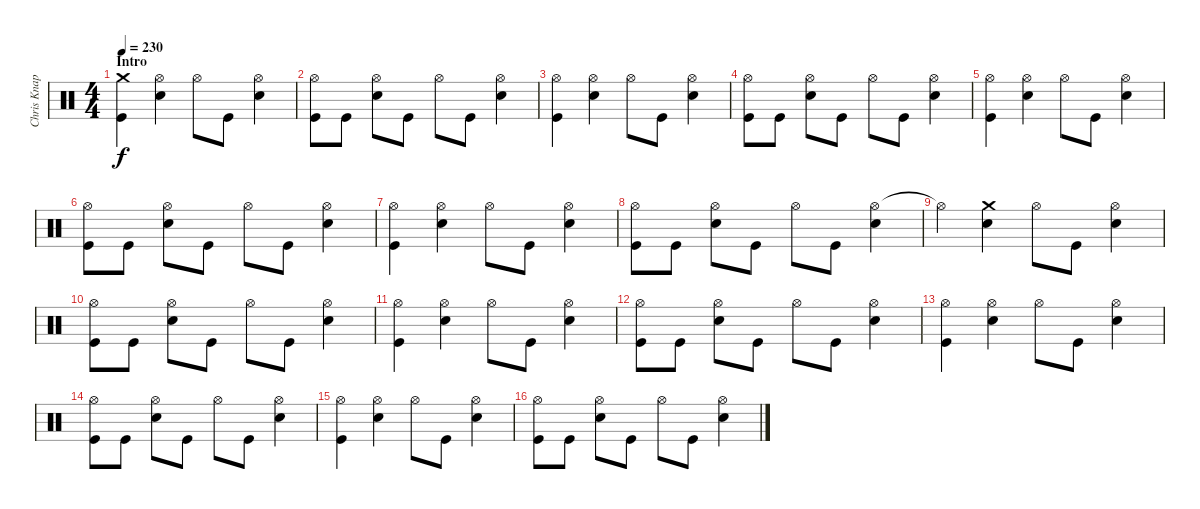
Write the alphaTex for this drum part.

\track ("Chris Knapp" "Chris Knap") {instrument percussion}
\staff {score}
\articulation defaults
\ts (4 4)
\section ("" "Intro")
\tempo 230
\clef neutral
\ks c
("Crash medium (hit)" "Kick (hit)").4{dy f} ("Hi-Hat (open)" "Electric Snare (hit)").4 "Hi-Hat (open)".8 "Kick (hit)".8 ("Hi-Hat (open)" "Electric Snare (hit)").4 |
("Hi-Hat (open)" "Kick (hit)").8 "Kick (hit)".8 ("Hi-Hat (open)" "Electric Snare (hit)").8 "Kick (hit)".8 "Hi-Hat (open)".8 "Kick (hit)".8 ("Hi-Hat (open)" "Electric Snare (hit)").4 |
("Hi-Hat (open)" "Kick (hit)").4 ("Hi-Hat (open)" "Electric Snare (hit)").4 "Hi-Hat (open)".8 "Kick (hit)".8 ("Hi-Hat (open)" "Electric Snare (hit)").4 |
("Hi-Hat (open)" "Kick (hit)").8 "Kick (hit)".8 ("Hi-Hat (open)" "Electric Snare (hit)").8 "Kick (hit)".8 "Hi-Hat (open)".8 "Kick (hit)".8 ("Hi-Hat (open)" "Electric Snare (hit)").4 |
("Hi-Hat (open)" "Kick (hit)").4 ("Hi-Hat (open)" "Electric Snare (hit)").4 "Hi-Hat (open)".8 "Kick (hit)".8 ("Hi-Hat (open)" "Electric Snare (hit)").4 |
("Hi-Hat (open)" "Kick (hit)").8 "Kick (hit)".8 ("Hi-Hat (open)" "Electric Snare (hit)").8 "Kick (hit)".8 "Hi-Hat (open)".8 "Kick (hit)".8 ("Hi-Hat (open)" "Electric Snare (hit)").4 |
("Hi-Hat (open)" "Kick (hit)").4 ("Hi-Hat (open)" "Electric Snare (hit)").4 "Hi-Hat (open)".8 "Kick (hit)".8 ("Hi-Hat (open)" "Electric Snare (hit)").4 |
("Hi-Hat (open)" "Kick (hit)").8 "Kick (hit)".8 ("Hi-Hat (open)" "Electric Snare (hit)").8 "Kick (hit)".8 "Hi-Hat (open)".8 "Kick (hit)".8 ("Hi-Hat (open)" "Electric Snare (hit)").4 |
"Hi-Hat (open)"{t}.4 ("Crash medium (hit)" "Electric Snare (hit)").4 "Hi-Hat (open)".8 "Kick (hit)".8 ("Hi-Hat (open)" "Electric Snare (hit)").4 |
("Hi-Hat (open)" "Kick (hit)").8 "Kick (hit)".8 ("Hi-Hat (open)" "Electric Snare (hit)").8 "Kick (hit)".8 "Hi-Hat (open)".8 "Kick (hit)".8 ("Hi-Hat (open)" "Electric Snare (hit)").4 |
("Hi-Hat (open)" "Kick (hit)").4 ("Hi-Hat (open)" "Electric Snare (hit)").4 "Hi-Hat (open)".8 "Kick (hit)".8 ("Hi-Hat (open)" "Electric Snare (hit)").4 |
("Hi-Hat (open)" "Kick (hit)").8 "Kick (hit)".8 ("Hi-Hat (open)" "Electric Snare (hit)").8 "Kick (hit)".8 "Hi-Hat (open)".8 "Kick (hit)".8 ("Hi-Hat (open)" "Electric Snare (hit)").4 |
("Hi-Hat (open)" "Kick (hit)").4 ("Hi-Hat (open)" "Electric Snare (hit)").4 "Hi-Hat (open)".8 "Kick (hit)".8 ("Hi-Hat (open)" "Electric Snare (hit)").4 |
("Hi-Hat (open)" "Kick (hit)").8 "Kick (hit)".8 ("Hi-Hat (open)" "Electric Snare (hit)").8 "Kick (hit)".8 "Hi-Hat (open)".8 "Kick (hit)".8 ("Hi-Hat (open)" "Electric Snare (hit)").4 |
("Hi-Hat (open)" "Kick (hit)").4 ("Hi-Hat (open)" "Electric Snare (hit)").4 "Hi-Hat (open)".8 "Kick (hit)".8 ("Hi-Hat (open)" "Electric Snare (hit)").4 |
("Hi-Hat (open)" "Kick (hit)").8 "Kick (hit)".8 ("Hi-Hat (open)" "Electric Snare (hit)").8 "Kick (hit)".8 "Hi-Hat (open)".8 "Kick (hit)".8 ("Hi-Hat (open)" "Electric Snare (hit)").4
